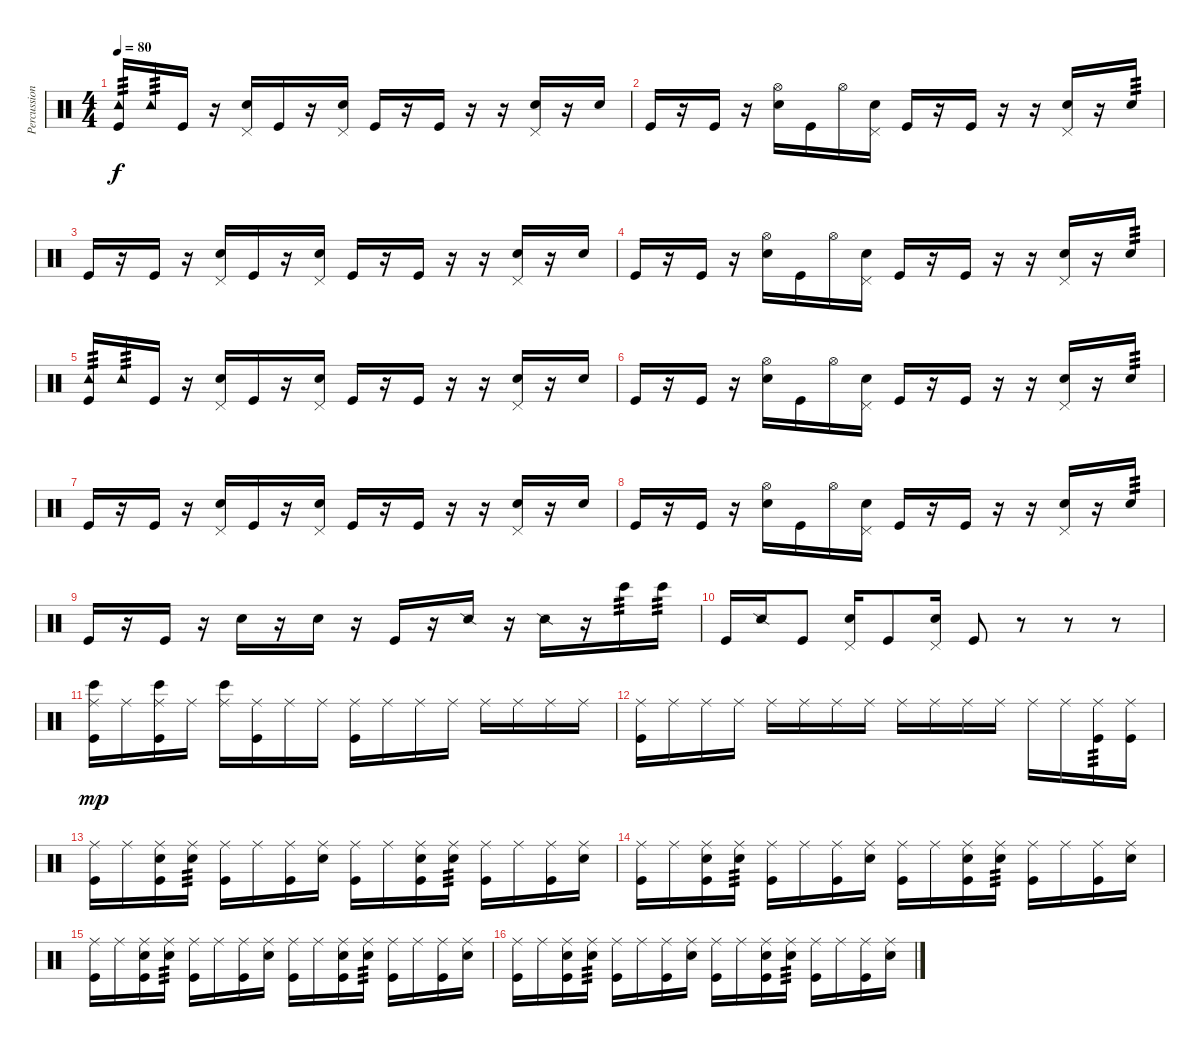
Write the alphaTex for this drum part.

\track ("Percussion" "Percussion") {instrument percussion}
\staff {score}
\articulation defaults
\ts (4 4)
\tempo 80
\clef neutral
\ks c
("Kick (hit)" "Tambourine (hit)").16{tp 3 dy f} "Tambourine (hit)".16{tp 3} "Kick (hit)".16 r.16 ("Hand Clap (hit)" "Pedal Hi-Hat (hit)").16 "Kick (hit)".16 r.16 ("Hand Clap (hit)" "Pedal Hi-Hat (hit)").16 "Kick (hit)".16 r.16 "Kick (hit)".16 r.16 r.16 ("Hand Clap (hit)" "Pedal Hi-Hat (hit)").16 r.16 "Hand Clap (hit)".16 |
"Kick (hit)".16 r.16 "Kick (hit)".16 r.16 ("Hand Clap (hit)" "Hi-Hat (open)").16 "Kick (hit)".16 "Hi-Hat (open)".16 ("Hand Clap (hit)" "Pedal Hi-Hat (hit)").16 "Kick (hit)".16 r.16 "Kick (hit)".16 r.16 r.16 ("Hand Clap (hit)" "Pedal Hi-Hat (hit)").16 r.16 "Hand Clap (hit)".16{tp 3} |
"Kick (hit)".16 r.16 "Kick (hit)".16 r.16 ("Hand Clap (hit)" "Pedal Hi-Hat (hit)").16 "Kick (hit)".16 r.16 ("Hand Clap (hit)" "Pedal Hi-Hat (hit)").16 "Kick (hit)".16 r.16 "Kick (hit)".16 r.16 r.16 ("Hand Clap (hit)" "Pedal Hi-Hat (hit)").16 r.16 "Hand Clap (hit)".16 |
"Kick (hit)".16 r.16 "Kick (hit)".16 r.16 ("Hand Clap (hit)" "Hi-Hat (open)").16 "Kick (hit)".16 "Hi-Hat (open)".16 ("Hand Clap (hit)" "Pedal Hi-Hat (hit)").16 "Kick (hit)".16 r.16 "Kick (hit)".16 r.16 r.16 ("Hand Clap (hit)" "Pedal Hi-Hat (hit)").16 r.16 "Hand Clap (hit)".16{tp 3} |
("Kick (hit)" "Tambourine (hit)").16{tp 3} "Tambourine (hit)".16{tp 3} "Kick (hit)".16 r.16 ("Hand Clap (hit)" "Pedal Hi-Hat (hit)").16 "Kick (hit)".16 r.16 ("Hand Clap (hit)" "Pedal Hi-Hat (hit)").16 "Kick (hit)".16 r.16 "Kick (hit)".16 r.16 r.16 ("Hand Clap (hit)" "Pedal Hi-Hat (hit)").16 r.16 "Hand Clap (hit)".16 |
"Kick (hit)".16 r.16 "Kick (hit)".16 r.16 ("Hand Clap (hit)" "Hi-Hat (open)").16 "Kick (hit)".16 "Hi-Hat (open)".16 ("Hand Clap (hit)" "Pedal Hi-Hat (hit)").16 "Kick (hit)".16 r.16 "Kick (hit)".16 r.16 r.16 ("Hand Clap (hit)" "Pedal Hi-Hat (hit)").16 r.16 "Hand Clap (hit)".16{tp 3} |
"Kick (hit)".16 r.16 "Kick (hit)".16 r.16 ("Hand Clap (hit)" "Pedal Hi-Hat (hit)").16 "Kick (hit)".16 r.16 ("Hand Clap (hit)" "Pedal Hi-Hat (hit)").16 "Kick (hit)".16 r.16 "Kick (hit)".16 r.16 r.16 ("Hand Clap (hit)" "Pedal Hi-Hat (hit)").16 r.16 "Hand Clap (hit)".16 |
"Kick (hit)".16 r.16 "Kick (hit)".16 r.16 ("Hand Clap (hit)" "Hi-Hat (open)").16 "Kick (hit)".16 "Hi-Hat (open)".16 ("Hand Clap (hit)" "Pedal Hi-Hat (hit)").16 "Kick (hit)".16 r.16 "Kick (hit)".16 r.16 r.16 ("Hand Clap (hit)" "Pedal Hi-Hat (hit)").16 r.16 "Hand Clap (hit)".16{tp 3} |
"Kick (hit)".16 r.16 "Kick (hit)".16 r.16 "Hand Clap (hit)".16 r.16 "Hand Clap (hit)".16 r.16 "Kick (hit)".16 r.16 "Snare (side stick) 2".16 r.16 "Snare (side stick) 2".16 r.16 "Bongo High (hit)".16{tp 3} "Bongo High (hit)".16{tp 3} |
"Kick (hit)".16 "Snare (side stick) 2".16 "Kick (hit)".8 ("Hand Clap (hit)" "Pedal Hi-Hat (hit)").16 "Kick (hit)".8 ("Hand Clap (hit)" "Pedal Hi-Hat (hit)").16 "Kick (hit)".8 r.8 r.8 r.8 |
("Kick (hit)" "Bongo High (hit)" "Ride (middle)").16{dy mp} "Ride (middle)".16 ("Kick (hit)" "Bongo High (hit)" "Ride (middle)").16 "Ride (middle)".16 ("Bongo High (hit)" "Ride (middle)").16 ("Kick (hit)" "Ride (middle)").16 "Ride (middle)".16 "Ride (middle)".16 ("Kick (hit)" "Ride (middle)").16 "Ride (middle)".16 "Ride (middle)".16 "Ride (middle)".16 "Ride (middle)".16 "Ride (middle)".16 "Ride (middle)".16 "Ride (middle)".16 |
("Kick (hit)" "Ride (middle)").16 "Ride (middle)".16 "Ride (middle)".16 "Ride (middle)".16 "Ride (middle)".16 "Ride (middle)".16 "Ride (middle)".16 "Ride (middle)".16 "Ride (middle)".16 "Ride (middle)".16 "Ride (middle)".16 "Ride (middle)".16 "Ride (middle)".16 "Ride (middle)".16 ("Kick (hit)" "Ride (middle)").16{tp 3} ("Kick (hit)" "Ride (middle)").16 |
("Kick (hit)" "Ride (middle)").16 "Ride (middle)".16 ("Kick (hit)" "Electric Snare (hit)" "Ride (middle)").16 ("Electric Snare (hit)" "Ride (middle)").16{tp 3} ("Kick (hit)" "Ride (middle)").16 "Ride (middle)".16 ("Kick (hit)" "Ride (middle)").16 ("Hand Clap (hit)" "Ride (middle)").16 ("Kick (hit)" "Ride (middle)").16 "Ride (middle)".16 ("Kick (hit)" "Electric Snare (hit)" "Ride (middle)").16 ("Electric Snare (hit)" "Ride (middle)").16{tp 3} ("Kick (hit)" "Ride (middle)").16 "Ride (middle)".16 ("Kick (hit)" "Ride (middle)").16 ("Hand Clap (hit)" "Ride (middle)").16 |
("Kick (hit)" "Ride (middle)").16 "Ride (middle)".16 ("Kick (hit)" "Electric Snare (hit)" "Ride (middle)").16 ("Electric Snare (hit)" "Ride (middle)").16{tp 3} ("Kick (hit)" "Ride (middle)").16 "Ride (middle)".16 ("Kick (hit)" "Ride (middle)").16 ("Hand Clap (hit)" "Ride (middle)").16 ("Kick (hit)" "Ride (middle)").16 "Ride (middle)".16 ("Kick (hit)" "Electric Snare (hit)" "Ride (middle)").16 ("Electric Snare (hit)" "Ride (middle)").16{tp 3} ("Kick (hit)" "Ride (middle)").16 "Ride (middle)".16 ("Kick (hit)" "Ride (middle)").16 ("Hand Clap (hit)" "Ride (middle)").16 |
("Kick (hit)" "Ride (middle)").16 "Ride (middle)".16 ("Kick (hit)" "Electric Snare (hit)" "Ride (middle)").16 ("Electric Snare (hit)" "Ride (middle)").16{tp 3} ("Kick (hit)" "Ride (middle)").16 "Ride (middle)".16 ("Kick (hit)" "Ride (middle)").16 ("Hand Clap (hit)" "Ride (middle)").16 ("Kick (hit)" "Ride (middle)").16 "Ride (middle)".16 ("Kick (hit)" "Electric Snare (hit)" "Ride (middle)").16 ("Electric Snare (hit)" "Ride (middle)").16{tp 3} ("Kick (hit)" "Ride (middle)").16 "Ride (middle)".16 ("Kick (hit)" "Ride (middle)").16 ("Hand Clap (hit)" "Ride (middle)").16 |
("Kick (hit)" "Ride (middle)").16 "Ride (middle)".16 ("Kick (hit)" "Electric Snare (hit)" "Ride (middle)").16 ("Electric Snare (hit)" "Ride (middle)").16{tp 3} ("Kick (hit)" "Ride (middle)").16 "Ride (middle)".16 ("Kick (hit)" "Ride (middle)").16 ("Hand Clap (hit)" "Ride (middle)").16 ("Kick (hit)" "Ride (middle)").16 "Ride (middle)".16 ("Kick (hit)" "Electric Snare (hit)" "Ride (middle)").16 ("Electric Snare (hit)" "Ride (middle)").16{tp 3} ("Kick (hit)" "Ride (middle)").16 "Ride (middle)".16 ("Kick (hit)" "Ride (middle)").16 ("Hand Clap (hit)" "Ride (middle)").16
